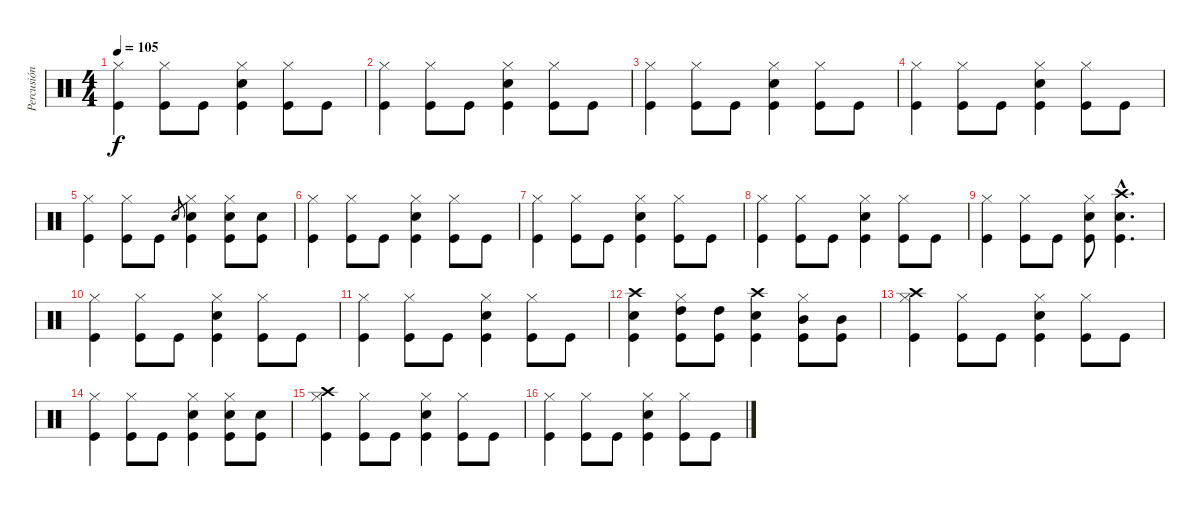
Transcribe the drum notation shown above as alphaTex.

\track ("Percusión" "Percusión") {instrument percussion}
\staff {score}
\articulation defaults
\ts (4 4)
\tempo 105
\clef neutral
\ks c
("Hi-Hat (closed)" "Kick (hit)").4{dy f} ("Hi-Hat (closed)" "Kick (hit)").8 "Kick (hit)".8 ("Hi-Hat (closed)" "Snare (hit) 2" "Kick (hit)").4 ("Hi-Hat (closed)" "Kick (hit)").8 "Kick (hit)".8 |
("Hi-Hat (closed)" "Kick (hit)").4 ("Hi-Hat (closed)" "Kick (hit)").8 "Kick (hit)".8 ("Hi-Hat (closed)" "Snare (hit) 2" "Kick (hit)").4 ("Hi-Hat (closed)" "Kick (hit)").8 "Kick (hit)".8 |
("Hi-Hat (closed)" "Kick (hit)").4 ("Hi-Hat (closed)" "Kick (hit)").8 "Kick (hit)".8 ("Hi-Hat (closed)" "Snare (hit) 2" "Kick (hit)").4 ("Hi-Hat (closed)" "Kick (hit)").8 "Kick (hit)".8 |
("Hi-Hat (closed)" "Kick (hit)").4 ("Hi-Hat (closed)" "Kick (hit)").8 "Kick (hit)".8 ("Hi-Hat (closed)" "Snare (hit) 2" "Kick (hit)").4 ("Hi-Hat (closed)" "Kick (hit)").8 "Kick (hit)".8 |
("Hi-Hat (closed)" "Kick (hit)").4 ("Hi-Hat (closed)" "Kick (hit)").8 "Kick (hit)".8 "Snare (hit) 2".8{gr} ("Hi-Hat (closed)" "Snare (hit) 2" "Kick (hit)").4 ("Hi-Hat (closed)" "Snare (hit) 2" "Kick (hit)").8 ("Snare (hit) 2" "Kick (hit)").8 |
("Hi-Hat (closed)" "Kick (hit)").4 ("Hi-Hat (closed)" "Kick (hit)").8 "Kick (hit)".8 ("Hi-Hat (closed)" "Snare (hit) 2" "Kick (hit)").4 ("Hi-Hat (closed)" "Kick (hit)").8 "Kick (hit)".8 |
("Hi-Hat (closed)" "Kick (hit)").4 ("Hi-Hat (closed)" "Kick (hit)").8 "Kick (hit)".8 ("Hi-Hat (closed)" "Snare (hit) 2" "Kick (hit)").4 ("Hi-Hat (closed)" "Kick (hit)").8 "Kick (hit)".8 |
("Hi-Hat (closed)" "Kick (hit)").4 ("Hi-Hat (closed)" "Kick (hit)").8 "Kick (hit)".8 ("Hi-Hat (closed)" "Snare (hit) 2" "Kick (hit)").4 ("Hi-Hat (closed)" "Kick (hit)").8 "Kick (hit)".8 |
("Hi-Hat (closed)" "Kick (hit)").4 ("Hi-Hat (closed)" "Kick (hit)").8 "Kick (hit)".8 ("Hi-Hat (closed)" "Snare (hit) 2" "Kick (hit)").8 ("Crash high (hit)"{hac} "Snare (hit) 2"{hac} "Kick (hit)"{hac}).4{d} |
("Hi-Hat (closed)" "Kick (hit)").4 ("Hi-Hat (closed)" "Kick (hit)").8 "Kick (hit)".8 ("Hi-Hat (closed)" "Snare (hit) 2" "Kick (hit)").4 ("Hi-Hat (closed)" "Kick (hit)").8 "Kick (hit)".8 |
("Hi-Hat (closed)" "Kick (hit)").4 ("Hi-Hat (closed)" "Kick (hit)").8 "Kick (hit)".8 ("Hi-Hat (closed)" "Snare (hit) 2" "Kick (hit)").4 ("Hi-Hat (closed)" "Kick (hit)").8 "Kick (hit)".8 |
("Crash high (hit)" "Snare (hit) 2" "Kick (hit)").4 ("Hi-Hat (closed)" "High Tom (hit)" "Kick (hit)").8 ("High Tom (hit)" "Kick (hit)").8 ("Crash high (hit)" "Snare (hit) 2" "Kick (hit)").4 ("Hi-Hat (closed)" "Mid Tom (hit)" "Kick (hit)").8 ("Mid Tom (hit)" "Kick (hit)").8 |
("Hi-Hat (closed)" "Crash high (hit)" "Kick (hit)").4 ("Hi-Hat (closed)" "Kick (hit)").8 "Kick (hit)".8 ("Hi-Hat (closed)" "Snare (hit) 2" "Kick (hit)").4 ("Hi-Hat (closed)" "Kick (hit)").8 "Kick (hit)".8 |
("Hi-Hat (closed)" "Kick (hit)").4 ("Hi-Hat (closed)" "Kick (hit)").8 "Kick (hit)".8 ("Hi-Hat (closed)" "Snare (hit) 2" "Kick (hit)").4 ("Hi-Hat (closed)" "Snare (hit) 2" "Kick (hit)").8 ("Snare (hit) 2" "Kick (hit)").8 |
("Hi-Hat (closed)" "Crash high (hit)" "Kick (hit)").4 ("Hi-Hat (closed)" "Kick (hit)").8 "Kick (hit)".8 ("Hi-Hat (closed)" "Snare (hit) 2" "Kick (hit)").4 ("Hi-Hat (closed)" "Kick (hit)").8 "Kick (hit)".8 |
("Hi-Hat (closed)" "Kick (hit)").4 ("Hi-Hat (closed)" "Kick (hit)").8 "Kick (hit)".8 ("Hi-Hat (closed)" "Snare (hit) 2" "Kick (hit)").4 ("Hi-Hat (closed)" "Kick (hit)").8 "Kick (hit)".8
